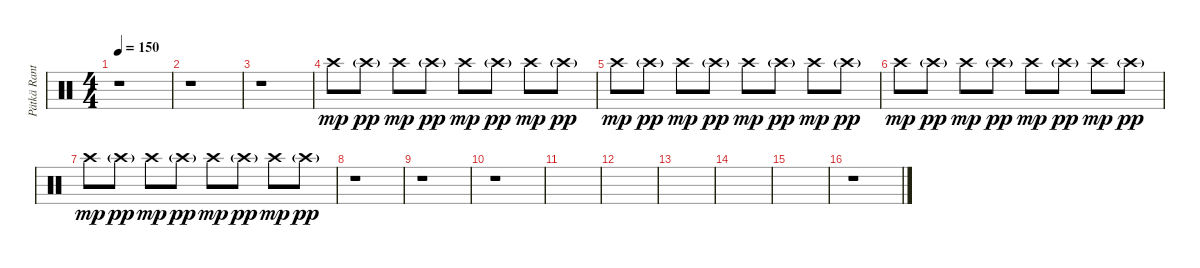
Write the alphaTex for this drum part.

\track ("Pätkä Rantala (Drums)" "Pätkä Rant") {instrument percussion}
\staff {score}
\articulation defaults
\ts (4 4)
\tempo 150
\clef neutral
\ks c
r.1{dy p} |
r.1 |
r.1 |
"Crash high (hit)".8{dy mp} "Crash high (hit)"{g}.8{dy pp} "Crash high (hit)".8{dy mp} "Crash high (hit)"{g}.8{dy pp} "Crash high (hit)".8{dy mp} "Crash high (hit)"{g}.8{dy pp} "Crash high (hit)".8{dy mp} "Crash high (hit)"{g}.8{dy pp} |
"Crash high (hit)".8{dy mp} "Crash high (hit)"{g}.8{dy pp} "Crash high (hit)".8{dy mp} "Crash high (hit)"{g}.8{dy pp} "Crash high (hit)".8{dy mp} "Crash high (hit)"{g}.8{dy pp} "Crash high (hit)".8{dy mp} "Crash high (hit)"{g}.8{dy pp} |
"Crash high (hit)".8{dy mp} "Crash high (hit)"{g}.8{dy pp} "Crash high (hit)".8{dy mp} "Crash high (hit)"{g}.8{dy pp} "Crash high (hit)".8{dy mp} "Crash high (hit)"{g}.8{dy pp} "Crash high (hit)".8{dy mp} "Crash high (hit)"{g}.8{dy pp} |
"Crash high (hit)".8{dy mp} "Crash high (hit)"{g}.8{dy pp} "Crash high (hit)".8{dy mp} "Crash high (hit)"{g}.8{dy pp} "Crash high (hit)".8{dy mp} "Crash high (hit)"{g}.8{dy pp} "Crash high (hit)".8{dy mp} "Crash high (hit)"{g}.8{dy pp} |
r.1 |
r.1 |
r.1 |
|
|
|
|
|
r.1
